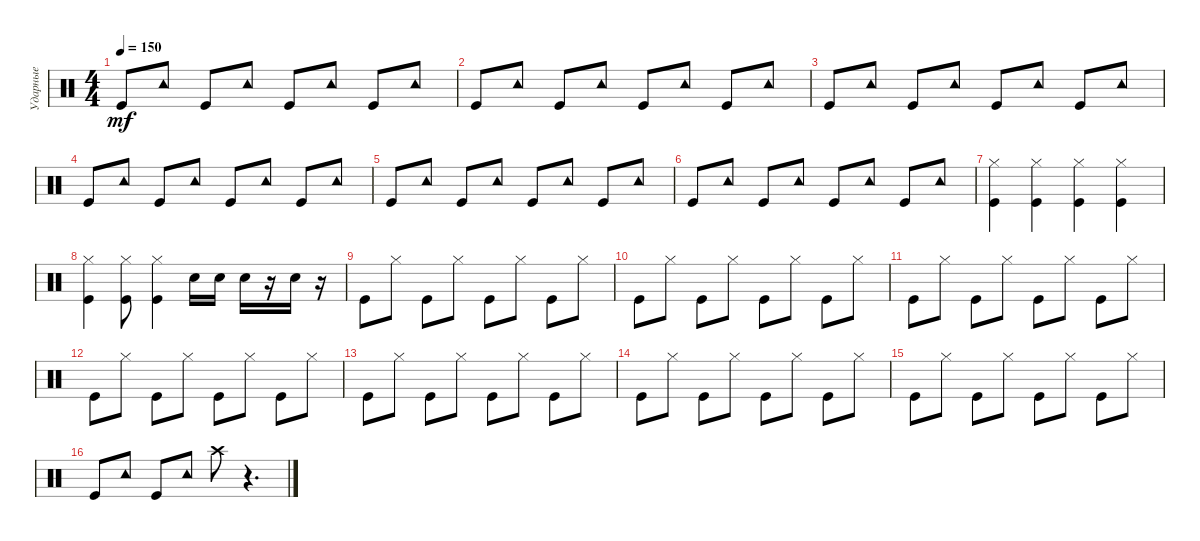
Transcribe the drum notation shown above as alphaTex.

\track ("Ударные" "Ударные") {instrument percussion}
\staff {score}
\articulation defaults
\ts (4 4)
\tempo 150
\clef neutral
\ks c "Kick (hit)".8{dy mf} "Tambourine (hit)".8 "Kick (hit)".8 "Tambourine (hit)".8 "Kick (hit)".8 "Tambourine (hit)".8 "Kick (hit)".8 "Tambourine (hit)".8
|
"Kick (hit)".8 "Tambourine (hit)".8 "Kick (hit)".8 "Tambourine (hit)".8 "Kick (hit)".8 "Tambourine (hit)".8 "Kick (hit)".8 "Tambourine (hit)".8 |
"Kick (hit)".8 "Tambourine (hit)".8 "Kick (hit)".8 "Tambourine (hit)".8 "Kick (hit)".8 "Tambourine (hit)".8 "Kick (hit)".8 "Tambourine (hit)".8 |
"Kick (hit)".8 "Tambourine (hit)".8 "Kick (hit)".8 "Tambourine (hit)".8 "Kick (hit)".8 "Tambourine (hit)".8 "Kick (hit)".8 "Tambourine (hit)".8 |
"Kick (hit)".8 "Tambourine (hit)".8 "Kick (hit)".8 "Tambourine (hit)".8 "Kick (hit)".8 "Tambourine (hit)".8 "Kick (hit)".8 "Tambourine (hit)".8 |
"Kick (hit)".8 "Tambourine (hit)".8 "Kick (hit)".8 "Tambourine (hit)".8 "Kick (hit)".8 "Tambourine (hit)".8 "Kick (hit)".8 "Tambourine (hit)".8 |
("Kick (hit)" "Hi-Hat (closed)").4 ("Kick (hit)" "Hi-Hat (closed)").4 ("Kick (hit)" "Hi-Hat (closed)").4 ("Kick (hit)" "Hi-Hat (closed)").4 |
("Kick (hit)" "Hi-Hat (closed)").4 ("Kick (hit)" "Hi-Hat (closed)").8 ("Kick (hit)" "Hi-Hat (closed)").4 "Electric Snare (hit)".16 "Electric Snare (hit)".16 "Electric Snare (hit)".16 r.16 "Electric Snare (hit)".16 r.16 |
"Kick (hit)".8 "Hi-Hat (closed)".8 "Kick (hit)".8 "Hi-Hat (closed)".8 "Kick (hit)".8 "Hi-Hat (closed)".8 "Kick (hit)".8 "Hi-Hat (closed)".8 |
"Kick (hit)".8 "Hi-Hat (closed)".8 "Kick (hit)".8 "Hi-Hat (closed)".8 "Kick (hit)".8 "Hi-Hat (closed)".8 "Kick (hit)".8 "Hi-Hat (closed)".8 |
"Kick (hit)".8 "Hi-Hat (closed)".8 "Kick (hit)".8 "Hi-Hat (closed)".8 "Kick (hit)".8 "Hi-Hat (closed)".8 "Kick (hit)".8 "Hi-Hat (closed)".8 |
"Kick (hit)".8 "Hi-Hat (closed)".8 "Kick (hit)".8 "Hi-Hat (closed)".8 "Kick (hit)".8 "Hi-Hat (closed)".8 "Kick (hit)".8 "Hi-Hat (closed)".8 |
"Kick (hit)".8 "Hi-Hat (closed)".8 "Kick (hit)".8 "Hi-Hat (closed)".8 "Kick (hit)".8 "Hi-Hat (closed)".8 "Kick (hit)".8 "Hi-Hat (closed)".8 |
"Kick (hit)".8 "Hi-Hat (closed)".8 "Kick (hit)".8 "Hi-Hat (closed)".8 "Kick (hit)".8 "Hi-Hat (closed)".8 "Kick (hit)".8 "Hi-Hat (closed)".8 |
"Kick (hit)".8 "Hi-Hat (closed)".8 "Kick (hit)".8 "Hi-Hat (closed)".8 "Kick (hit)".8 "Hi-Hat (closed)".8 "Kick (hit)".8 "Hi-Hat (closed)".8 |
"Kick (hit)".8 "Tambourine (hit)".8 "Kick (hit)".8 "Tambourine (hit)".8 "Crash high (hit)".8 r.4{d}
